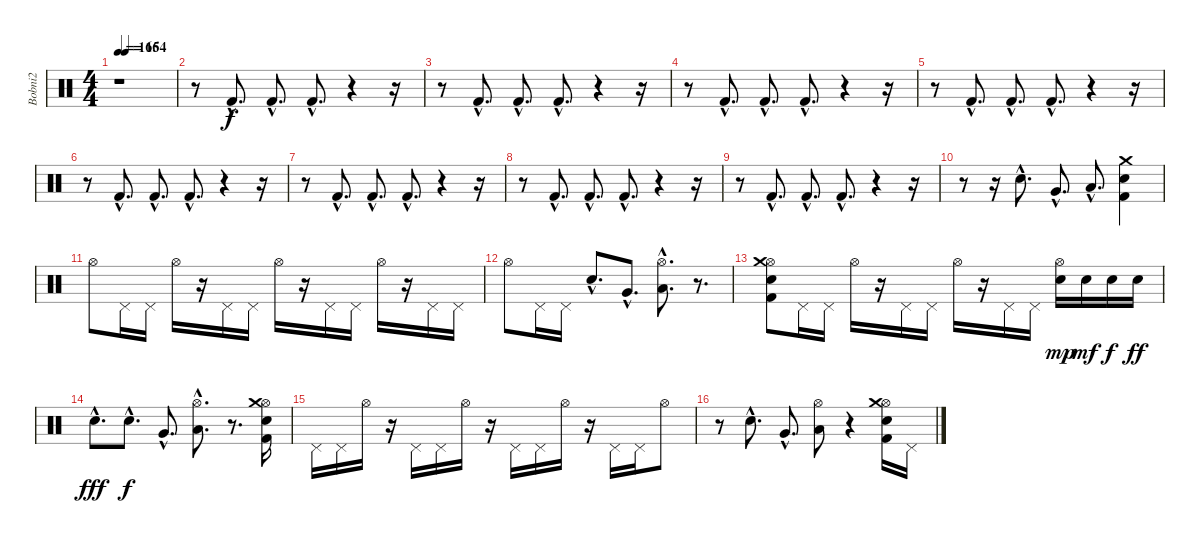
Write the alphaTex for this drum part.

\track ("Bobni2" "Bobni2") {instrument percussion}
\staff {score}
\articulation defaults
\ts (4 4)
\tempo 166
\tempo (154 0.125)
\clef neutral
\ks c
r.1{dy f} |
r.8 "Kick (hit) 2"{hac}.8{d} "Kick (hit) 2"{hac}.8{d} "Kick (hit) 2"{hac}.8{d} r.4 r.16 |
r.8 "Kick (hit) 2"{hac}.8{d} "Kick (hit) 2"{hac}.8{d} "Kick (hit) 2"{hac}.8{d} r.4 r.16 |
r.8 "Kick (hit) 2"{hac}.8{d} "Kick (hit) 2"{hac}.8{d} "Kick (hit) 2"{hac}.8{d} r.4 r.16 |
r.8 "Kick (hit) 2"{hac}.8{d} "Kick (hit) 2"{hac}.8{d} "Kick (hit) 2"{hac}.8{d} r.4 r.16 |
r.8 "Kick (hit) 2"{hac}.8{d} "Kick (hit) 2"{hac}.8{d} "Kick (hit) 2"{hac}.8{d} r.4 r.16 |
r.8 "Kick (hit) 2"{hac}.8{d} "Kick (hit) 2"{hac}.8{d} "Kick (hit) 2"{hac}.8{d} r.4 r.16 |
r.8 "Kick (hit) 2"{hac}.8{d} "Kick (hit) 2"{hac}.8{d} "Kick (hit) 2"{hac}.8{d} r.4 r.16 |
r.8 "Kick (hit) 2"{hac}.8{d} "Kick (hit) 2"{hac}.8{d} "Kick (hit) 2"{hac}.8{d} r.4 r.16 |
r.8 r.16 "Snare (hit) 2"{hac}.8{d} "Very Low Tom (hit)"{hac}.8{d} "Low Floor Tom (hit)"{hac}.8{d} ("Crash medium (hit)" "Snare (hit) 2" "Kick (hit) 2").4 |
"Hi-Hat (open)".8 "Pedal Hi-Hat (hit)".16 "Pedal Hi-Hat (hit)".16 "Hi-Hat (open)".16 r.16 "Pedal Hi-Hat (hit)".16 "Pedal Hi-Hat (hit)".16 "Hi-Hat (open)".16 r.16 "Pedal Hi-Hat (hit)".16 "Pedal Hi-Hat (hit)".16 "Hi-Hat (open)".16 r.16 "Pedal Hi-Hat (hit)".16 "Pedal Hi-Hat (hit)".16 |
"Hi-Hat (open)".8 "Pedal Hi-Hat (hit)".16 "Pedal Hi-Hat (hit)".16 "Snare (hit) 2"{hac}.8{d} "Very Low Tom (hit)"{hac}.8{d} ("Hi-Hat (open)"{hac} "Low Floor Tom (hit)"{hac}).8{d} r.8{d} |
("Hi-Hat (open)" "Crash medium (hit)" "Snare (hit) 2" "Kick (hit) 2").8 "Pedal Hi-Hat (hit)".16 "Pedal Hi-Hat (hit)".16 "Hi-Hat (open)".16 r.16 "Pedal Hi-Hat (hit)".16 "Pedal Hi-Hat (hit)".16 "Hi-Hat (open)".16 r.16 "Pedal Hi-Hat (hit)".16 "Pedal Hi-Hat (hit)".16 ("Hi-Hat (open)" "Snare (hit) 2").16{dy mp} "Snare (hit) 2".16{dy mf} "Snare (hit) 2".16{dy f} "Snare (hit) 2".16{dy ff} |
"Snare (hit) 2"{hac}.8{d dy fff} "Snare (hit) 2"{hac}.8{d dy f} "Very Low Tom (hit)"{hac}.8{d} ("Hi-Hat (open)"{hac} "Low Floor Tom (hit)"{hac}).8{d} r.8{d} ("Hi-Hat (open)" "Crash medium (hit)" "Snare (hit) 2" "Kick (hit) 2").16 |
"Pedal Hi-Hat (hit)".16 "Pedal Hi-Hat (hit)".16 "Hi-Hat (open)".16 r.16 "Pedal Hi-Hat (hit)".16 "Pedal Hi-Hat (hit)".16 "Hi-Hat (open)".16 r.16 "Pedal Hi-Hat (hit)".16 "Pedal Hi-Hat (hit)".16 "Hi-Hat (open)".16 r.16 "Pedal Hi-Hat (hit)".16 "Pedal Hi-Hat (hit)".16 "Hi-Hat (open)".8 |
r.8 "Snare (hit) 2"{hac}.8{d} "Very Low Tom (hit)"{hac}.8{d} ("Hi-Hat (open)" "Low Floor Tom (hit)").8 r.4 ("Hi-Hat (open)" "Crash medium (hit)" "Snare (hit) 2" "Kick (hit) 2").16 "Pedal Hi-Hat (hit)".16
